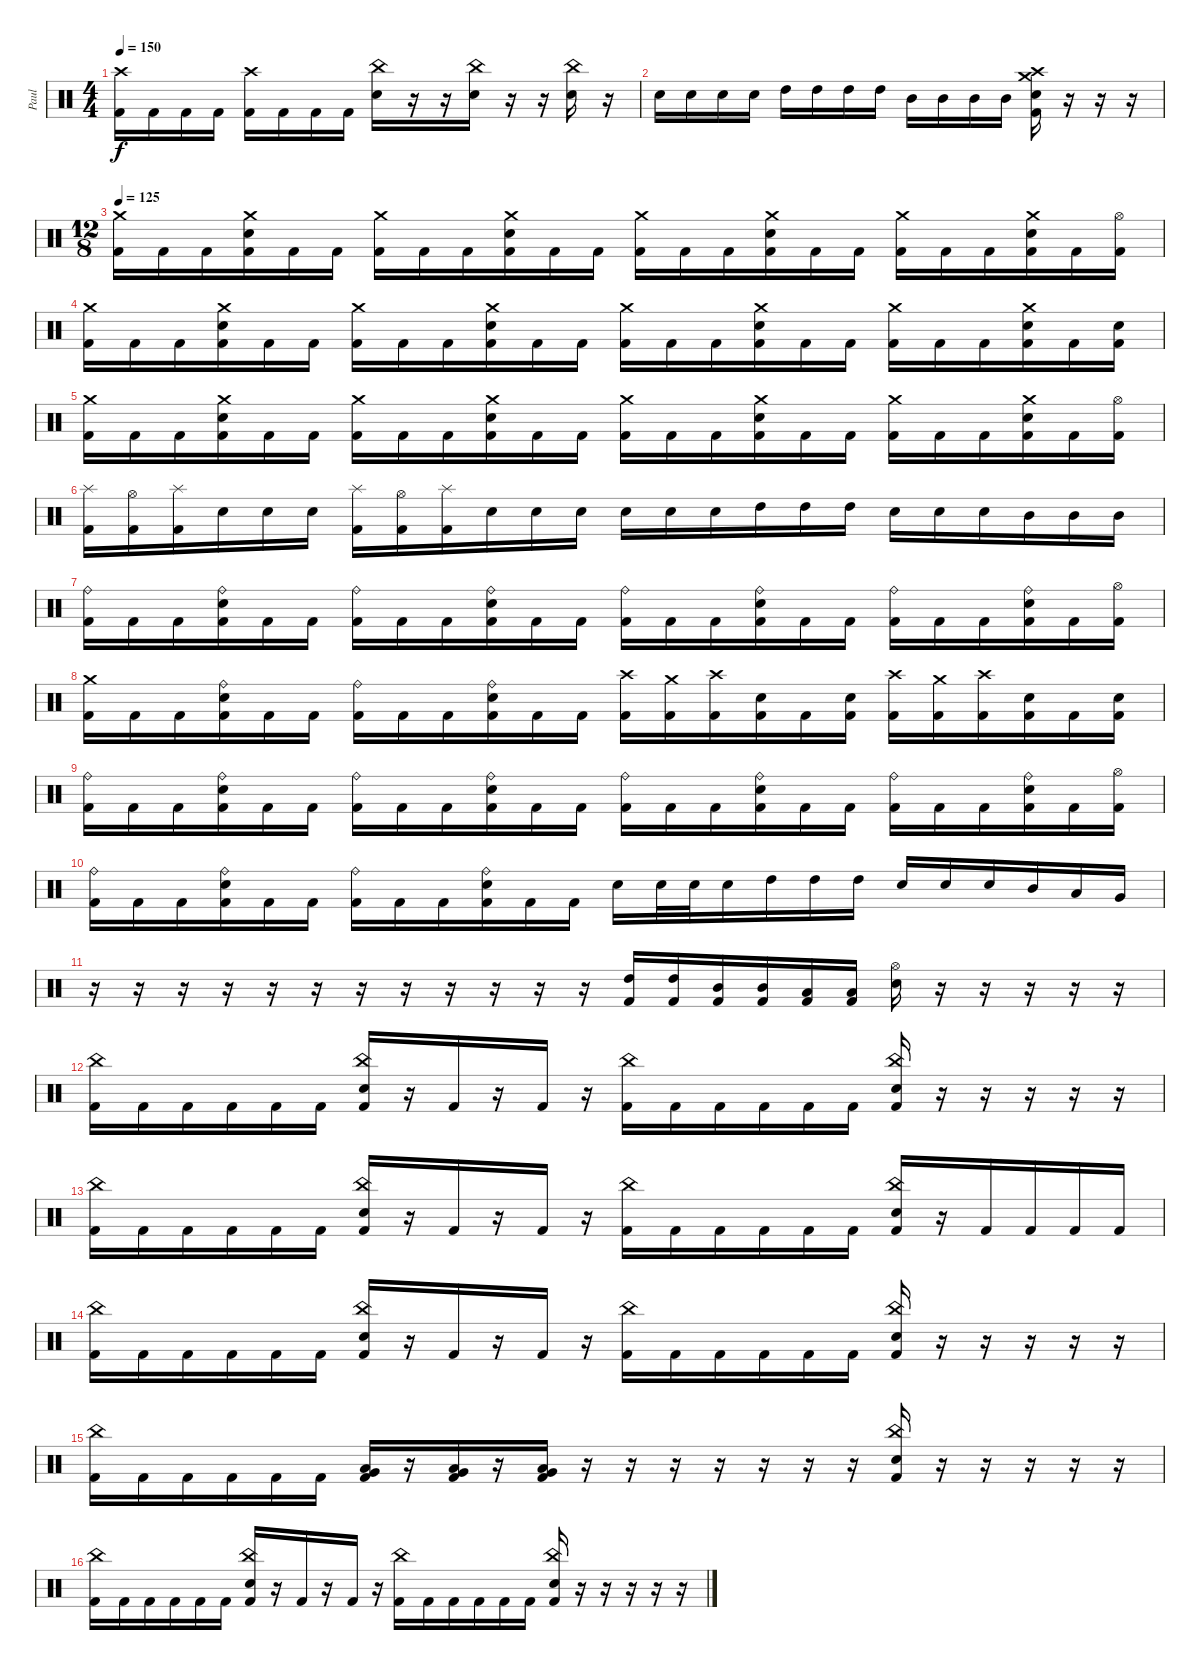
\track ("Paul" "Paul") {instrument percussion}
\staff {score}
\articulation defaults
\ts (4 4)
\tempo 150
\clef neutral
\ks c
("Crash high (hit)" "Kick (hit) 2").16{dy f} "Kick (hit) 2".16 "Kick (hit) 2".16 "Kick (hit) 2".16 ("Crash high (hit)" "Kick (hit) 2").16 "Kick (hit) 2".16 "Kick (hit) 2".16 "Kick (hit) 2".16 ("China (hit)" "Electric Snare (hit)").16 r.16 r.16 ("China (hit)" "Electric Snare (hit)").16 r.16 r.16 ("China (hit)" "Electric Snare (hit)").16 r.16 |
"Electric Snare (hit)".16 "Electric Snare (hit)".16 "Electric Snare (hit)".16 "Electric Snare (hit)".16 "High Tom (hit)".16 "High Tom (hit)".16 "High Tom (hit)".16 "High Tom (hit)".16 "Mid Tom (hit)".16 "Mid Tom (hit)".16 "Mid Tom (hit)".16 "Mid Tom (hit)".16 ("Crash high (hit)" "Crash medium (hit)" "Electric Snare (hit)" "Kick (hit) 2").16 r.16 r.16 r.16 |
\ts (12 8)
\tempo 125
("Crash medium (hit)" "Kick (hit) 2").16 "Kick (hit) 2".16 "Kick (hit) 2".16 ("Crash medium (hit)" "Electric Snare (hit)" "Kick (hit) 2").16 "Kick (hit) 2".16 "Kick (hit) 2".16 ("Crash medium (hit)" "Kick (hit) 2").16 "Kick (hit) 2".16 "Kick (hit) 2".16 ("Crash medium (hit)" "Electric Snare (hit)" "Kick (hit) 2").16 "Kick (hit) 2".16 "Kick (hit) 2".16 ("Crash medium (hit)" "Kick (hit) 2").16 "Kick (hit) 2".16 "Kick (hit) 2".16 ("Crash medium (hit)" "Electric Snare (hit)" "Kick (hit) 2").16 "Kick (hit) 2".16 "Kick (hit) 2".16 ("Crash medium (hit)" "Kick (hit) 2").16 "Kick (hit) 2".16 "Kick (hit) 2".16 ("Crash medium (hit)" "Electric Snare (hit)" "Kick (hit) 2").16 "Kick (hit) 2".16 ("Hi-Hat (open)" "Kick (hit) 2").16 |
("Crash medium (hit)" "Kick (hit) 2").16 "Kick (hit) 2".16 "Kick (hit) 2".16 ("Crash medium (hit)" "Electric Snare (hit)" "Kick (hit) 2").16 "Kick (hit) 2".16 "Kick (hit) 2".16 ("Crash medium (hit)" "Kick (hit) 2").16 "Kick (hit) 2".16 "Kick (hit) 2".16 ("Crash medium (hit)" "Electric Snare (hit)" "Kick (hit) 2").16 "Kick (hit) 2".16 "Kick (hit) 2".16 ("Crash medium (hit)" "Kick (hit) 2").16 "Kick (hit) 2".16 "Kick (hit) 2".16 ("Crash medium (hit)" "Electric Snare (hit)" "Kick (hit) 2").16 "Kick (hit) 2".16 "Kick (hit) 2".16 ("Crash medium (hit)" "Kick (hit) 2").16 "Kick (hit) 2".16 "Kick (hit) 2".16 ("Crash medium (hit)" "Electric Snare (hit)" "Kick (hit) 2").16 "Kick (hit) 2".16 ("Electric Snare (hit)" "Kick (hit) 2").16 |
("Crash medium (hit)" "Kick (hit) 2").16 "Kick (hit) 2".16 "Kick (hit) 2".16 ("Crash medium (hit)" "Electric Snare (hit)" "Kick (hit) 2").16 "Kick (hit) 2".16 "Kick (hit) 2".16 ("Crash medium (hit)" "Kick (hit) 2").16 "Kick (hit) 2".16 "Kick (hit) 2".16 ("Crash medium (hit)" "Electric Snare (hit)" "Kick (hit) 2").16 "Kick (hit) 2".16 "Kick (hit) 2".16 ("Crash medium (hit)" "Kick (hit) 2").16 "Kick (hit) 2".16 "Kick (hit) 2".16 ("Crash medium (hit)" "Electric Snare (hit)" "Kick (hit) 2").16 "Kick (hit) 2".16 "Kick (hit) 2".16 ("Crash medium (hit)" "Kick (hit) 2").16 "Kick (hit) 2".16 "Kick (hit) 2".16 ("Crash medium (hit)" "Electric Snare (hit)" "Kick (hit) 2").16 "Kick (hit) 2".16 ("Hi-Hat (open)" "Kick (hit) 2").16 |
("Splash (hit)" "Kick (hit) 2").16 ("Hi-Hat (open)" "Kick (hit) 2").16 ("Splash (hit)" "Kick (hit) 2").16 "Electric Snare (hit)".16 "Electric Snare (hit)".16 "Electric Snare (hit)".16 ("Splash (hit)" "Kick (hit) 2").16 ("Hi-Hat (open)" "Kick (hit) 2").16 ("Splash (hit)" "Kick (hit) 2").16 "Electric Snare (hit)".16 "Electric Snare (hit)".16 "Electric Snare (hit)".16 "Electric Snare (hit)".16 "Electric Snare (hit)".16 "Electric Snare (hit)".16 "High Tom (hit)".16 "High Tom (hit)".16 "High Tom (hit)".16 "Electric Snare (hit)".16 "Electric Snare (hit)".16 "Electric Snare (hit)".16 "Mid Tom (hit)".16 "Mid Tom (hit)".16 "Mid Tom (hit)".16 |
("Ride (bell)" "Kick (hit) 2").16 "Kick (hit) 2".16 "Kick (hit) 2".16 ("Ride (bell)" "Electric Snare (hit)" "Kick (hit) 2").16 "Kick (hit) 2".16 "Kick (hit) 2".16 ("Ride (bell)" "Kick (hit) 2").16 "Kick (hit) 2".16 "Kick (hit) 2".16 ("Ride (bell)" "Electric Snare (hit)" "Kick (hit) 2").16 "Kick (hit) 2".16 "Kick (hit) 2".16 ("Ride (bell)" "Kick (hit) 2").16 "Kick (hit) 2".16 "Kick (hit) 2".16 ("Ride (bell)" "Electric Snare (hit)" "Kick (hit) 2").16 "Kick (hit) 2".16 "Kick (hit) 2".16 ("Ride (bell)" "Kick (hit) 2").16 "Kick (hit) 2".16 "Kick (hit) 2".16 ("Ride (bell)" "Electric Snare (hit)" "Kick (hit) 2").16 "Kick (hit) 2".16 ("Hi-Hat (open)" "Kick (hit) 2").16 |
("Crash medium (hit)" "Kick (hit) 2").16 "Kick (hit) 2".16 "Kick (hit) 2".16 ("Ride (bell)" "Electric Snare (hit)" "Kick (hit) 2").16 "Kick (hit) 2".16 "Kick (hit) 2".16 ("Ride (bell)" "Kick (hit) 2").16 "Kick (hit) 2".16 "Kick (hit) 2".16 ("Ride (bell)" "Electric Snare (hit)" "Kick (hit) 2").16 "Kick (hit) 2".16 "Kick (hit) 2".16 ("Crash high (hit)" "Kick (hit) 2").16 ("Crash medium (hit)" "Kick (hit) 2").16 ("Crash high (hit)" "Kick (hit) 2").16 ("Electric Snare (hit)" "Kick (hit) 2").16 "Kick (hit) 2".16 ("Electric Snare (hit)" "Kick (hit) 2").16 ("Crash high (hit)" "Kick (hit) 2").16 ("Crash medium (hit)" "Kick (hit) 2").16 ("Crash high (hit)" "Kick (hit) 2").16 ("Electric Snare (hit)" "Kick (hit) 2").16 "Kick (hit) 2".16 ("Electric Snare (hit)" "Kick (hit) 2").16 |
("Ride (bell)" "Kick (hit) 2").16 "Kick (hit) 2".16 "Kick (hit) 2".16 ("Ride (bell)" "Electric Snare (hit)" "Kick (hit) 2").16 "Kick (hit) 2".16 "Kick (hit) 2".16 ("Ride (bell)" "Kick (hit) 2").16 "Kick (hit) 2".16 "Kick (hit) 2".16 ("Ride (bell)" "Electric Snare (hit)" "Kick (hit) 2").16 "Kick (hit) 2".16 "Kick (hit) 2".16 ("Ride (bell)" "Kick (hit) 2").16 "Kick (hit) 2".16 "Kick (hit) 2".16 ("Ride (bell)" "Electric Snare (hit)" "Kick (hit) 2").16 "Kick (hit) 2".16 "Kick (hit) 2".16 ("Ride (bell)" "Kick (hit) 2").16 "Kick (hit) 2".16 "Kick (hit) 2".16 ("Ride (bell)" "Electric Snare (hit)" "Kick (hit) 2").16 "Kick (hit) 2".16 ("Hi-Hat (open)" "Kick (hit) 2").16 |
("Ride (bell)" "Kick (hit) 2").16 "Kick (hit) 2".16 "Kick (hit) 2".16 ("Ride (bell)" "Electric Snare (hit)" "Kick (hit) 2").16 "Kick (hit) 2".16 "Kick (hit) 2".16 ("Ride (bell)" "Kick (hit) 2").16 "Kick (hit) 2".16 "Kick (hit) 2".16 ("Ride (bell)" "Electric Snare (hit)" "Kick (hit) 2").16 "Kick (hit) 2".16 "Kick (hit) 2".16 "Electric Snare (hit)".16 "Electric Snare (hit)".32 "Electric Snare (hit)".32 "Electric Snare (hit)".16 "High Tom (hit)".16 "High Tom (hit)".16 "High Tom (hit)".16 "Electric Snare (hit)".16 "Electric Snare (hit)".16 "Electric Snare (hit)".16 "Mid Tom (hit)".16 "Low Tom (hit)".16 "Very Low Tom (hit)".16 |
r.16 r.16 r.16 r.16 r.16 r.16 r.16 r.16 r.16 r.16 r.16 r.16 ("High Tom (hit)" "Kick (hit) 2").16 ("High Tom (hit)" "Kick (hit) 2").16 ("Mid Tom (hit)" "Kick (hit) 2").16 ("Mid Tom (hit)" "Kick (hit) 2").16 ("Low Tom (hit)" "Kick (hit) 2").16 ("Low Tom (hit)" "Kick (hit) 2").16 ("Hi-Hat (open)" "Electric Snare (hit)").16 r.16 r.16 r.16 r.16 r.16 |
("China (hit)" "Kick (hit) 2").16 "Kick (hit) 2".16 "Kick (hit) 2".16 "Kick (hit) 2".16 "Kick (hit) 2".16 "Kick (hit) 2".16 ("China (hit)" "Electric Snare (hit)" "Kick (hit) 2").16 r.16 "Kick (hit) 2".16 r.16 "Kick (hit) 2".16 r.16 ("China (hit)" "Kick (hit) 2").16 "Kick (hit) 2".16 "Kick (hit) 2".16 "Kick (hit) 2".16 "Kick (hit) 2".16 "Kick (hit) 2".16 ("China (hit)" "Electric Snare (hit)" "Kick (hit) 2").16 r.16 r.16 r.16 r.16 r.16 |
("China (hit)" "Kick (hit) 2").16 "Kick (hit) 2".16 "Kick (hit) 2".16 "Kick (hit) 2".16 "Kick (hit) 2".16 "Kick (hit) 2".16 ("China (hit)" "Electric Snare (hit)" "Kick (hit) 2").16 r.16 "Kick (hit) 2".16 r.16 "Kick (hit) 2".16 r.16 ("China (hit)" "Kick (hit) 2").16 "Kick (hit) 2".16 "Kick (hit) 2".16 "Kick (hit) 2".16 "Kick (hit) 2".16 "Kick (hit) 2".16 ("China (hit)" "Electric Snare (hit)" "Kick (hit) 2").16 r.16 "Kick (hit) 2".16 "Kick (hit) 2".16 "Kick (hit) 2".16 "Kick (hit) 2".16 |
("China (hit)" "Kick (hit) 2").16 "Kick (hit) 2".16 "Kick (hit) 2".16 "Kick (hit) 2".16 "Kick (hit) 2".16 "Kick (hit) 2".16 ("China (hit)" "Electric Snare (hit)" "Kick (hit) 2").16 r.16 "Kick (hit) 2".16 r.16 "Kick (hit) 2".16 r.16 ("China (hit)" "Kick (hit) 2").16 "Kick (hit) 2".16 "Kick (hit) 2".16 "Kick (hit) 2".16 "Kick (hit) 2".16 "Kick (hit) 2".16 ("China (hit)" "Electric Snare (hit)" "Kick (hit) 2").16 r.16 r.16 r.16 r.16 r.16 |
("China (hit)" "Kick (hit) 2").16 "Kick (hit) 2".16 "Kick (hit) 2".16 "Kick (hit) 2".16 "Kick (hit) 2".16 "Kick (hit) 2".16 ("Very Low Tom (hit)" "Low Tom (hit)" "Kick (hit) 2").16 r.16 ("Very Low Tom (hit)" "Low Tom (hit)" "Kick (hit) 2").16 r.16 ("Very Low Tom (hit)" "Low Tom (hit)" "Kick (hit) 2").16 r.16 r.16 r.16 r.16 r.16 r.16 r.16 ("China (hit)" "Snare (hit) 2" "Kick (hit) 2").16 r.16 r.16 r.16 r.16 r.16 |
("China (hit)" "Kick (hit) 2").16 "Kick (hit) 2".16 "Kick (hit) 2".16 "Kick (hit) 2".16 "Kick (hit) 2".16 "Kick (hit) 2".16 ("China (hit)" "Electric Snare (hit)" "Kick (hit) 2").16 r.16 "Kick (hit) 2".16 r.16 "Kick (hit) 2".16 r.16 ("China (hit)" "Kick (hit) 2").16 "Kick (hit) 2".16 "Kick (hit) 2".16 "Kick (hit) 2".16 "Kick (hit) 2".16 "Kick (hit) 2".16 ("China (hit)" "Electric Snare (hit)" "Kick (hit) 2").16 r.16 r.16 r.16 r.16 r.16
